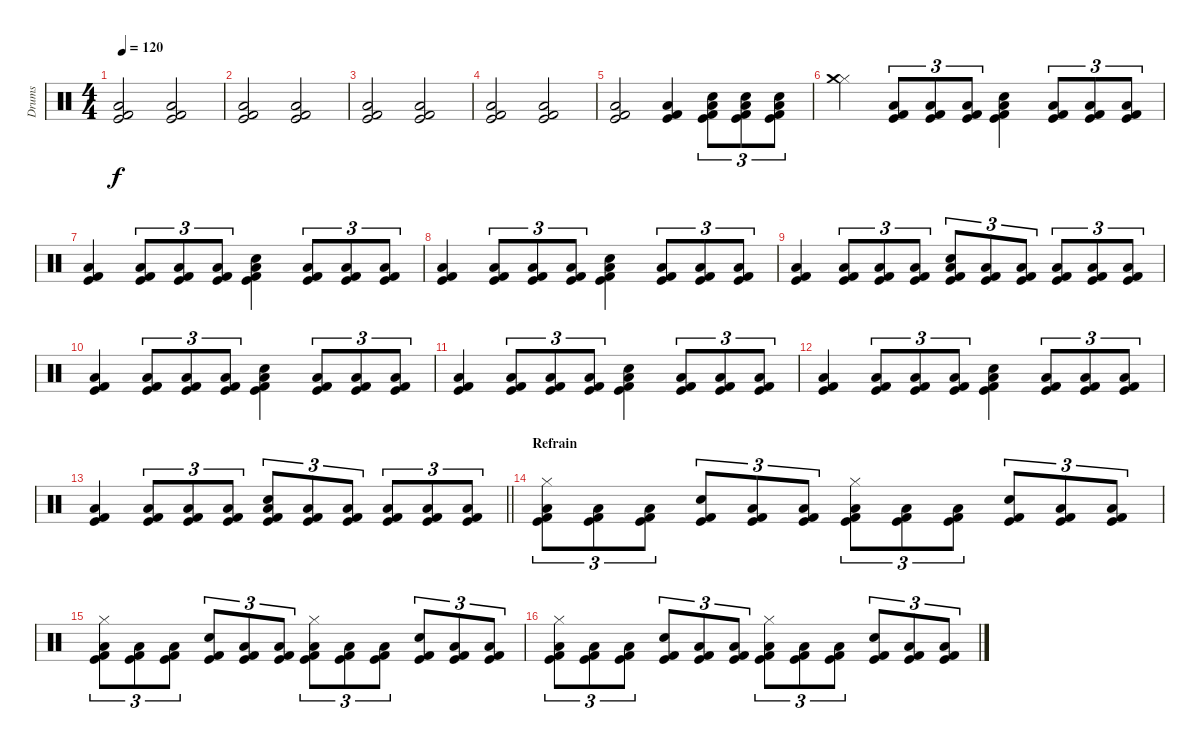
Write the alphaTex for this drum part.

\track ("Drums" "Drums") {instrument percussion}
\staff {score}
\articulation defaults
\ts (4 4)
\tempo 120
\clef neutral
\ks c
("Low Floor Tom (hit)" "Kick (hit) 2" "Kick (hit)").2{dy f} ("Low Floor Tom (hit)" "Kick (hit) 2" "Kick (hit)").2 |
("Low Floor Tom (hit)" "Kick (hit) 2" "Kick (hit)").2 ("Low Floor Tom (hit)" "Kick (hit) 2" "Kick (hit)").2 |
("Low Floor Tom (hit)" "Kick (hit) 2" "Kick (hit)").2 ("Low Floor Tom (hit)" "Kick (hit) 2" "Kick (hit)").2 |
("Low Floor Tom (hit)" "Kick (hit) 2" "Kick (hit)").2 ("Low Floor Tom (hit)" "Kick (hit) 2" "Kick (hit)").2 |
("Low Floor Tom (hit)" "Kick (hit) 2" "Kick (hit)").2 ("Low Floor Tom (hit)" "Kick (hit) 2" "Kick (hit)").4 ("Snare (hit) 2" "Low Floor Tom (hit)" "Kick (hit) 2" "Kick (hit)").8{tu (3 2)} ("Snare (hit) 2" "Low Floor Tom (hit)" "Kick (hit) 2" "Kick (hit)").8{tu (3 2)} ("Snare (hit) 2" "Low Floor Tom (hit)" "Kick (hit) 2" "Kick (hit)").8{tu (3 2)} |
("Hi-Hat (closed)" "Crash medium (hit)").4 ("Low Floor Tom (hit)" "Kick (hit) 2" "Kick (hit)").8{tu (3 2)} ("Low Floor Tom (hit)" "Kick (hit) 2" "Kick (hit)").8{tu (3 2)} ("Low Floor Tom (hit)" "Kick (hit) 2" "Kick (hit)").8{tu (3 2)} ("Snare (hit) 2" "Low Floor Tom (hit)" "Kick (hit) 2" "Kick (hit)").4 ("Low Floor Tom (hit)" "Kick (hit) 2" "Kick (hit)").8{tu (3 2)} ("Low Floor Tom (hit)" "Kick (hit) 2" "Kick (hit)").8{tu (3 2)} ("Low Floor Tom (hit)" "Kick (hit) 2" "Kick (hit)").8{tu (3 2)} |
("Low Floor Tom (hit)" "Kick (hit) 2" "Kick (hit)").4 ("Low Floor Tom (hit)" "Kick (hit) 2" "Kick (hit)").8{tu (3 2)} ("Low Floor Tom (hit)" "Kick (hit) 2" "Kick (hit)").8{tu (3 2)} ("Low Floor Tom (hit)" "Kick (hit) 2" "Kick (hit)").8{tu (3 2)} ("Snare (hit) 2" "Low Floor Tom (hit)" "Kick (hit) 2" "Kick (hit)").4 ("Low Floor Tom (hit)" "Kick (hit) 2" "Kick (hit)").8{tu (3 2)} ("Low Floor Tom (hit)" "Kick (hit) 2" "Kick (hit)").8{tu (3 2)} ("Low Floor Tom (hit)" "Kick (hit) 2" "Kick (hit)").8{tu (3 2)} |
("Low Floor Tom (hit)" "Kick (hit) 2" "Kick (hit)").4 ("Low Floor Tom (hit)" "Kick (hit) 2" "Kick (hit)").8{tu (3 2)} ("Low Floor Tom (hit)" "Kick (hit) 2" "Kick (hit)").8{tu (3 2)} ("Low Floor Tom (hit)" "Kick (hit) 2" "Kick (hit)").8{tu (3 2)} ("Snare (hit) 2" "Low Floor Tom (hit)" "Kick (hit) 2" "Kick (hit)").4 ("Low Floor Tom (hit)" "Kick (hit) 2" "Kick (hit)").8{tu (3 2)} ("Low Floor Tom (hit)" "Kick (hit) 2" "Kick (hit)").8{tu (3 2)} ("Low Floor Tom (hit)" "Kick (hit) 2" "Kick (hit)").8{tu (3 2)} |
("Low Floor Tom (hit)" "Kick (hit) 2" "Kick (hit)").4 ("Low Floor Tom (hit)" "Kick (hit) 2" "Kick (hit)").8{tu (3 2)} ("Low Floor Tom (hit)" "Kick (hit) 2" "Kick (hit)").8{tu (3 2)} ("Low Floor Tom (hit)" "Kick (hit) 2" "Kick (hit)").8{tu (3 2)} ("Snare (hit) 2" "Low Floor Tom (hit)" "Kick (hit) 2" "Kick (hit)").8{tu (3 2)} ("Low Floor Tom (hit)" "Kick (hit) 2" "Kick (hit)").8{tu (3 2)} ("Low Floor Tom (hit)" "Kick (hit) 2" "Kick (hit)").8{tu (3 2)} ("Low Floor Tom (hit)" "Kick (hit) 2" "Kick (hit)").8{tu (3 2)} ("Low Floor Tom (hit)" "Kick (hit) 2" "Kick (hit)").8{tu (3 2)} ("Low Floor Tom (hit)" "Kick (hit) 2" "Kick (hit)").8{tu (3 2)} |
("Low Floor Tom (hit)" "Kick (hit) 2" "Kick (hit)").4 ("Low Floor Tom (hit)" "Kick (hit) 2" "Kick (hit)").8{tu (3 2)} ("Low Floor Tom (hit)" "Kick (hit) 2" "Kick (hit)").8{tu (3 2)} ("Low Floor Tom (hit)" "Kick (hit) 2" "Kick (hit)").8{tu (3 2)} ("Snare (hit) 2" "Low Floor Tom (hit)" "Kick (hit) 2" "Kick (hit)").4 ("Low Floor Tom (hit)" "Kick (hit) 2" "Kick (hit)").8{tu (3 2)} ("Low Floor Tom (hit)" "Kick (hit) 2" "Kick (hit)").8{tu (3 2)} ("Low Floor Tom (hit)" "Kick (hit) 2" "Kick (hit)").8{tu (3 2)} |
("Low Floor Tom (hit)" "Kick (hit) 2" "Kick (hit)").4 ("Low Floor Tom (hit)" "Kick (hit) 2" "Kick (hit)").8{tu (3 2)} ("Low Floor Tom (hit)" "Kick (hit) 2" "Kick (hit)").8{tu (3 2)} ("Low Floor Tom (hit)" "Kick (hit) 2" "Kick (hit)").8{tu (3 2)} ("Snare (hit) 2" "Low Floor Tom (hit)" "Kick (hit) 2" "Kick (hit)").4 ("Low Floor Tom (hit)" "Kick (hit) 2" "Kick (hit)").8{tu (3 2)} ("Low Floor Tom (hit)" "Kick (hit) 2" "Kick (hit)").8{tu (3 2)} ("Low Floor Tom (hit)" "Kick (hit) 2" "Kick (hit)").8{tu (3 2)} |
("Low Floor Tom (hit)" "Kick (hit) 2" "Kick (hit)").4 ("Low Floor Tom (hit)" "Kick (hit) 2" "Kick (hit)").8{tu (3 2)} ("Low Floor Tom (hit)" "Kick (hit) 2" "Kick (hit)").8{tu (3 2)} ("Low Floor Tom (hit)" "Kick (hit) 2" "Kick (hit)").8{tu (3 2)} ("Snare (hit) 2" "Low Floor Tom (hit)" "Kick (hit) 2" "Kick (hit)").4 ("Low Floor Tom (hit)" "Kick (hit) 2" "Kick (hit)").8{tu (3 2)} ("Low Floor Tom (hit)" "Kick (hit) 2" "Kick (hit)").8{tu (3 2)} ("Low Floor Tom (hit)" "Kick (hit) 2" "Kick (hit)").8{tu (3 2)} |
\barLineRight lightlight
("Low Floor Tom (hit)" "Kick (hit) 2" "Kick (hit)").4 ("Low Floor Tom (hit)" "Kick (hit) 2" "Kick (hit)").8{tu (3 2)} ("Low Floor Tom (hit)" "Kick (hit) 2" "Kick (hit)").8{tu (3 2)} ("Low Floor Tom (hit)" "Kick (hit) 2" "Kick (hit)").8{tu (3 2)} ("Snare (hit) 2" "Low Floor Tom (hit)" "Kick (hit) 2" "Kick (hit)").8{tu (3 2)} ("Low Floor Tom (hit)" "Kick (hit) 2" "Kick (hit)").8{tu (3 2)} ("Low Floor Tom (hit)" "Kick (hit) 2" "Kick (hit)").8{tu (3 2)} ("Low Floor Tom (hit)" "Kick (hit) 2" "Kick (hit)").8{tu (3 2)} ("Low Floor Tom (hit)" "Kick (hit) 2" "Kick (hit)").8{tu (3 2)} ("Low Floor Tom (hit)" "Kick (hit) 2" "Kick (hit)").8{tu (3 2)} |
\section ("" "Refrain")
("Hi-Hat (closed)" "Low Floor Tom (hit)" "Kick (hit) 2" "Kick (hit)").8{tu (3 2)} ("Low Floor Tom (hit)" "Kick (hit) 2" "Kick (hit)").8{tu (3 2)} ("Low Floor Tom (hit)" "Kick (hit) 2" "Kick (hit)").8{tu (3 2)} ("Snare (hit) 2" "Kick (hit) 2" "Kick (hit)").8{tu (3 2)} ("Low Floor Tom (hit)" "Kick (hit) 2" "Kick (hit)").8{tu (3 2)} ("Low Floor Tom (hit)" "Kick (hit) 2" "Kick (hit)").8{tu (3 2)} ("Hi-Hat (closed)" "Low Floor Tom (hit)" "Kick (hit) 2" "Kick (hit)").8{tu (3 2)} ("Low Floor Tom (hit)" "Kick (hit) 2" "Kick (hit)").8{tu (3 2)} ("Low Floor Tom (hit)" "Kick (hit) 2" "Kick (hit)").8{tu (3 2)} ("Snare (hit) 2" "Kick (hit) 2" "Kick (hit)").8{tu (3 2)} ("Low Floor Tom (hit)" "Kick (hit) 2" "Kick (hit)").8{tu (3 2)} ("Low Floor Tom (hit)" "Kick (hit) 2" "Kick (hit)").8{tu (3 2)} |
("Hi-Hat (closed)" "Low Floor Tom (hit)" "Kick (hit) 2" "Kick (hit)").8{tu (3 2)} ("Low Floor Tom (hit)" "Kick (hit) 2" "Kick (hit)").8{tu (3 2)} ("Low Floor Tom (hit)" "Kick (hit) 2" "Kick (hit)").8{tu (3 2)} ("Snare (hit) 2" "Kick (hit) 2" "Kick (hit)").8{tu (3 2)} ("Low Floor Tom (hit)" "Kick (hit) 2" "Kick (hit)").8{tu (3 2)} ("Low Floor Tom (hit)" "Kick (hit) 2" "Kick (hit)").8{tu (3 2)} ("Hi-Hat (closed)" "Low Floor Tom (hit)" "Kick (hit) 2" "Kick (hit)").8{tu (3 2)} ("Low Floor Tom (hit)" "Kick (hit) 2" "Kick (hit)").8{tu (3 2)} ("Low Floor Tom (hit)" "Kick (hit) 2" "Kick (hit)").8{tu (3 2)} ("Snare (hit) 2" "Kick (hit) 2" "Kick (hit)").8{tu (3 2)} ("Low Floor Tom (hit)" "Kick (hit) 2" "Kick (hit)").8{tu (3 2)} ("Low Floor Tom (hit)" "Kick (hit) 2" "Kick (hit)").8{tu (3 2)} |
("Hi-Hat (closed)" "Low Floor Tom (hit)" "Kick (hit) 2" "Kick (hit)").8{tu (3 2)} ("Low Floor Tom (hit)" "Kick (hit) 2" "Kick (hit)").8{tu (3 2)} ("Low Floor Tom (hit)" "Kick (hit) 2" "Kick (hit)").8{tu (3 2)} ("Snare (hit) 2" "Kick (hit) 2" "Kick (hit)").8{tu (3 2)} ("Low Floor Tom (hit)" "Kick (hit) 2" "Kick (hit)").8{tu (3 2)} ("Low Floor Tom (hit)" "Kick (hit) 2" "Kick (hit)").8{tu (3 2)} ("Hi-Hat (closed)" "Low Floor Tom (hit)" "Kick (hit) 2" "Kick (hit)").8{tu (3 2)} ("Low Floor Tom (hit)" "Kick (hit) 2" "Kick (hit)").8{tu (3 2)} ("Low Floor Tom (hit)" "Kick (hit) 2" "Kick (hit)").8{tu (3 2)} ("Snare (hit) 2" "Kick (hit) 2" "Kick (hit)").8{tu (3 2)} ("Low Floor Tom (hit)" "Kick (hit) 2" "Kick (hit)").8{tu (3 2)} ("Low Floor Tom (hit)" "Kick (hit) 2" "Kick (hit)").8{tu (3 2)}
